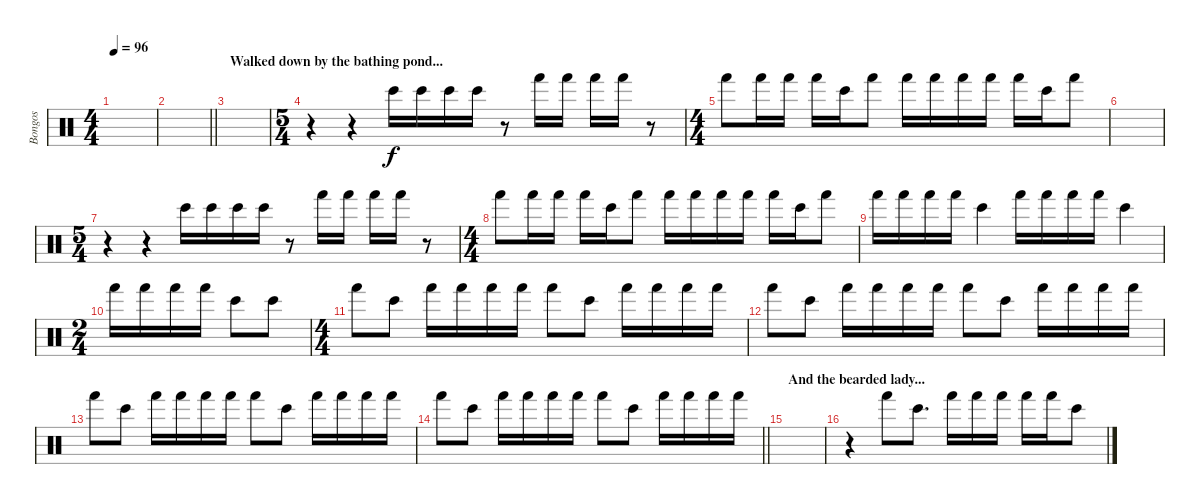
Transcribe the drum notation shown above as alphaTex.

\track ("Bongos" "Bongos") {instrument percussion}
\staff {score}
\articulation defaults
\ts (4 4)
\tempo 96
\clef neutral
\ks c
|
\barLineRight lightlight
|
\section ("" "Walked down by the bathing pond...")
|
\ts (5 4)
r.4 r.4 "Bongo High (hit)".16 "Bongo High (hit)".16 "Bongo High (hit)".16 "Bongo High (hit)".16 r.8 "Hand (hit)".16 "Hand (hit)".16 "Hand (hit)".16 "Hand (hit)".16 r.8 |
\ts (4 4)
"Hand (hit)".8 "Hand (hit)".16 "Hand (hit)".16 "Hand (hit)".16 "Bongo High (hit)".16 "Hand (hit)".8 "Hand (hit)".16 "Hand (hit)".16 "Hand (hit)".16 "Hand (hit)".16 "Hand (hit)".16 "Bongo High (hit)".16 "Hand (hit)".8 |
|
\ts (5 4)
r.4 r.4 "Bongo High (hit)".16 "Bongo High (hit)".16 "Bongo High (hit)".16 "Bongo High (hit)".16 r.8 "Hand (hit)".16 "Hand (hit)".16 "Hand (hit)".16 "Hand (hit)".16 r.8 |
\ts (4 4)
"Hand (hit)".8 "Hand (hit)".16 "Hand (hit)".16 "Hand (hit)".16 "Bongo High (hit)".16 "Hand (hit)".8 "Hand (hit)".16 "Hand (hit)".16 "Hand (hit)".16 "Hand (hit)".16 "Hand (hit)".16 "Bongo High (hit)".16 "Hand (hit)".8 |
"Hand (hit)".16 "Hand (hit)".16 "Hand (hit)".16 "Hand (hit)".16 "Bongo High (hit)".4 "Hand (hit)".16 "Hand (hit)".16 "Hand (hit)".16 "Hand (hit)".16 "Bongo High (hit)".4 |
\ts (2 4)
"Hand (hit)".16 "Hand (hit)".16 "Hand (hit)".16 "Hand (hit)".16 "Bongo High (hit)".8 "Bongo High (hit)".8 |
\ts (4 4)
"Hand (hit)".8 "Bongo High (hit)".8 "Hand (hit)".16 "Hand (hit)".16 "Hand (hit)".16 "Hand (hit)".16 "Hand (hit)".8 "Bongo High (hit)".8 "Hand (hit)".16 "Hand (hit)".16 "Hand (hit)".16 "Hand (hit)".16 |
"Hand (hit)".8 "Bongo High (hit)".8 "Hand (hit)".16 "Hand (hit)".16 "Hand (hit)".16 "Hand (hit)".16 "Hand (hit)".8 "Bongo High (hit)".8 "Hand (hit)".16 "Hand (hit)".16 "Hand (hit)".16 "Hand (hit)".16 |
"Hand (hit)".8 "Bongo High (hit)".8 "Hand (hit)".16 "Hand (hit)".16 "Hand (hit)".16 "Hand (hit)".16 "Hand (hit)".8 "Bongo High (hit)".8 "Hand (hit)".16 "Hand (hit)".16 "Hand (hit)".16 "Hand (hit)".16 |
\barLineRight lightlight "Hand (hit)".8 "Bongo High (hit)".8 "Hand (hit)".16 "Hand (hit)".16 "Hand (hit)".16 "Hand (hit)".16 "Hand (hit)".8 "Bongo High (hit)".8 "Hand (hit)".16 "Hand (hit)".16 "Hand (hit)".16 "Hand (hit)".16
|
\section ("" "And the bearded lady...")
|
r.4 "Hand (hit)".8 "Bongo High (hit)".8{d} "Hand (hit)".16 "Hand (hit)".16 "Hand (hit)".16 "Hand (hit)".16 "Hand (hit)".16 "Bongo High (hit)".8
